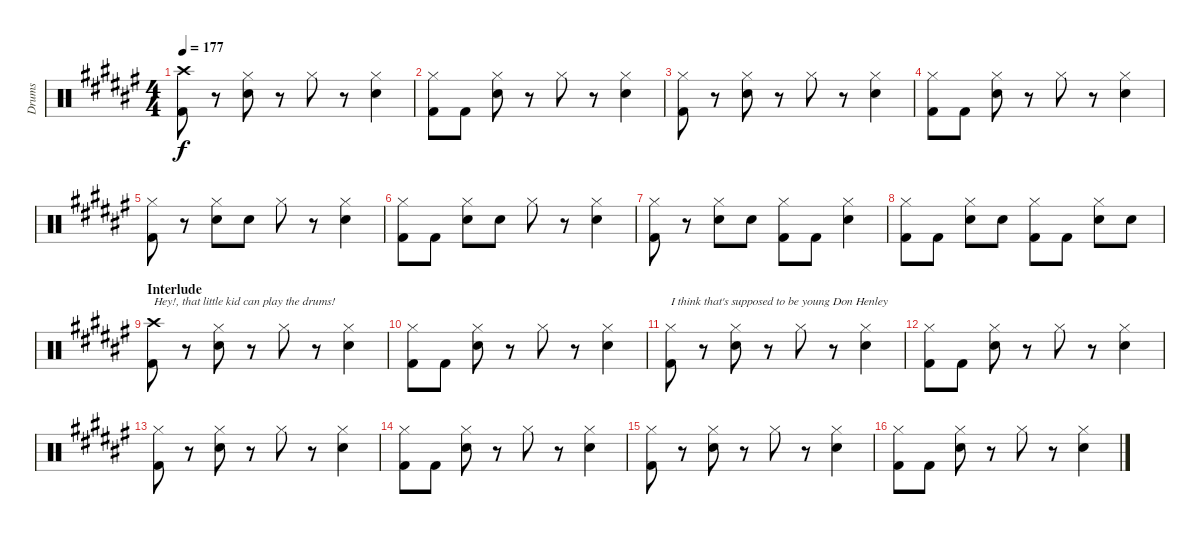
\track ("Drums" "Drums") {instrument percussion}
\staff {score}
\articulation defaults
\ts (4 4)
\tempo 177
\clef neutral
\ks d#minor
("Crash high (hit)" "Kick (hit) 2").8{dy f} r.8 ("Hi-Hat (closed)" "Snare (hit) 2").8 r.8 "Hi-Hat (closed)".8 r.8 ("Hi-Hat (closed)" "Snare (hit) 2").4 |
("Hi-Hat (closed)" "Kick (hit) 2").8 "Kick (hit) 2".8 ("Hi-Hat (closed)" "Snare (hit) 2").8 r.8 "Hi-Hat (closed)".8 r.8 ("Hi-Hat (closed)" "Snare (hit) 2").4 |
("Hi-Hat (closed)" "Kick (hit) 2").8 r.8 ("Hi-Hat (closed)" "Snare (hit) 2").8 r.8 "Hi-Hat (closed)".8 r.8 ("Hi-Hat (closed)" "Snare (hit) 2").4 |
("Hi-Hat (closed)" "Kick (hit) 2").8 "Kick (hit) 2".8 ("Hi-Hat (closed)" "Snare (hit) 2").8 r.8 "Hi-Hat (closed)".8 r.8 ("Hi-Hat (closed)" "Snare (hit) 2").4 |
("Hi-Hat (closed)" "Kick (hit) 2").8 r.8 ("Hi-Hat (closed)" "Snare (hit) 2").8 "Snare (hit) 2".8 "Hi-Hat (closed)".8 r.8 ("Hi-Hat (closed)" "Snare (hit) 2").4 |
("Hi-Hat (closed)" "Kick (hit) 2").8 "Kick (hit) 2".8 ("Hi-Hat (closed)" "Snare (hit) 2").8 "Snare (hit) 2".8 "Hi-Hat (closed)".8 r.8 ("Hi-Hat (closed)" "Snare (hit) 2").4 |
("Hi-Hat (closed)" "Kick (hit) 2").8 r.8 ("Hi-Hat (closed)" "Snare (hit) 2").8 "Snare (hit) 2".8 ("Hi-Hat (closed)" "Kick (hit) 2").8 "Kick (hit) 2".8 ("Hi-Hat (closed)" "Snare (hit) 2").4 |
("Hi-Hat (closed)" "Kick (hit) 2").8 "Kick (hit) 2".8 ("Hi-Hat (closed)" "Snare (hit) 2").8 "Snare (hit) 2".8 ("Hi-Hat (closed)" "Kick (hit) 2").8 "Kick (hit) 2".8 ("Hi-Hat (closed)" "Snare (hit) 2").8 "Snare (hit) 2".8 |
\section ("" "Interlude")
("Crash high (hit)" "Kick (hit) 2").8{txt "Hey!, that little kid can play the drums!  "} r.8 ("Hi-Hat (closed)" "Snare (hit) 2").8 r.8 "Hi-Hat (closed)".8 r.8 ("Hi-Hat (closed)" "Snare (hit) 2").4 |
("Hi-Hat (closed)" "Kick (hit) 2").8 "Kick (hit) 2".8 ("Hi-Hat (closed)" "Snare (hit) 2").8 r.8 "Hi-Hat (closed)".8 r.8 ("Hi-Hat (closed)" "Snare (hit) 2").4 |
("Hi-Hat (closed)" "Kick (hit) 2").8{txt "I think that's supposed to be young Don Henley"} r.8 ("Hi-Hat (closed)" "Snare (hit) 2").8 r.8 "Hi-Hat (closed)".8 r.8 ("Hi-Hat (closed)" "Snare (hit) 2").4 |
("Hi-Hat (closed)" "Kick (hit) 2").8 "Kick (hit) 2".8 ("Hi-Hat (closed)" "Snare (hit) 2").8 r.8 "Hi-Hat (closed)".8 r.8 ("Hi-Hat (closed)" "Snare (hit) 2").4 |
("Hi-Hat (closed)" "Kick (hit) 2").8 r.8 ("Hi-Hat (closed)" "Snare (hit) 2").8 r.8 "Hi-Hat (closed)".8 r.8 ("Hi-Hat (closed)" "Snare (hit) 2").4 |
("Hi-Hat (closed)" "Kick (hit) 2").8 "Kick (hit) 2".8 ("Hi-Hat (closed)" "Snare (hit) 2").8 r.8 "Hi-Hat (closed)".8 r.8 ("Hi-Hat (closed)" "Snare (hit) 2").4 |
("Hi-Hat (closed)" "Kick (hit) 2").8 r.8 ("Hi-Hat (closed)" "Snare (hit) 2").8 r.8 "Hi-Hat (closed)".8 r.8 ("Hi-Hat (closed)" "Snare (hit) 2").4 |
("Hi-Hat (closed)" "Kick (hit) 2").8 "Kick (hit) 2".8 ("Hi-Hat (closed)" "Snare (hit) 2").8 r.8 "Hi-Hat (closed)".8 r.8 ("Hi-Hat (closed)" "Snare (hit) 2").4
